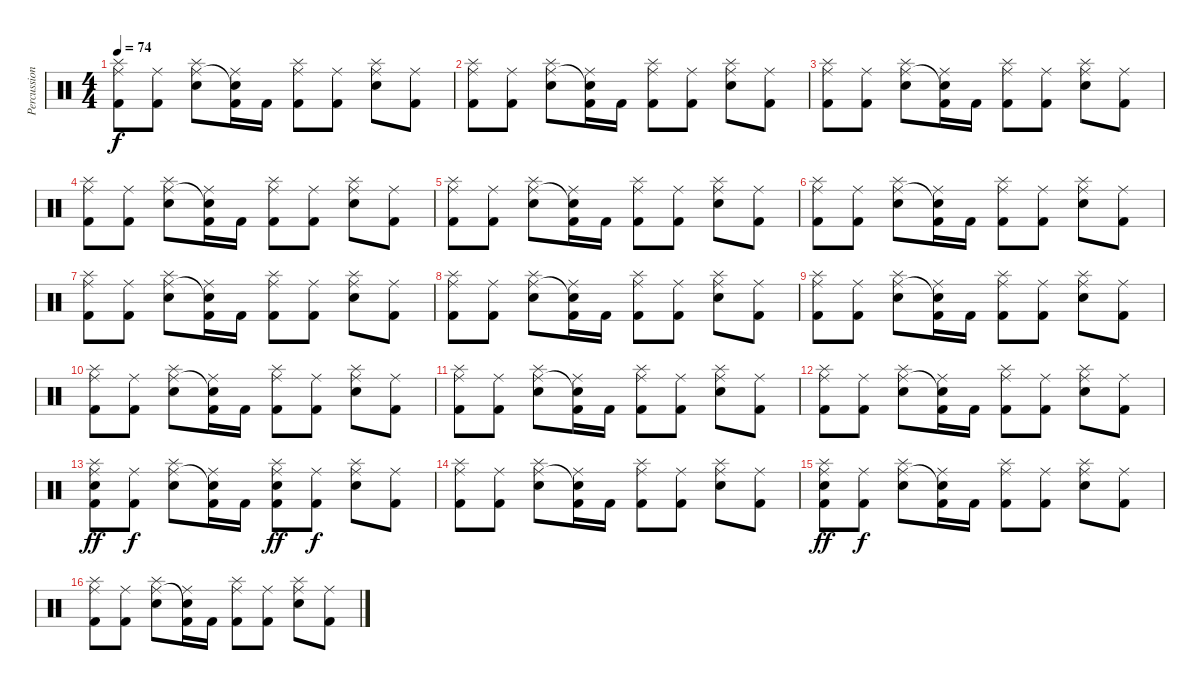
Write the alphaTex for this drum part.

\track ("Percussion" "Percussion") {instrument percussion}
\staff {score}
\articulation defaults
\ts (4 4)
\tempo 74
\clef neutral
\ks c
("Splash (hit)" "Ride (middle)" "Kick (hit) 2").8{dy f} ("Ride (middle)" "Kick (hit) 2").8 ("Splash (hit)" "Ride (middle)" "Electric Snare (hit)").8 ("Ride (middle)" "Snare (hit)"{t} "Kick (hit) 2").16 "Kick (hit) 2".16 ("Splash (hit)" "Ride (middle)" "Kick (hit) 2").8 ("Ride (middle)" "Kick (hit) 2").8 ("Splash (hit)" "Ride (middle)" "Electric Snare (hit)").8 ("Ride (middle)" "Kick (hit) 2").8 |
("Splash (hit)" "Ride (middle)" "Kick (hit) 2").8 ("Ride (middle)" "Kick (hit) 2").8 ("Splash (hit)" "Ride (middle)" "Electric Snare (hit)").8 ("Ride (middle)" "Snare (hit)"{t} "Kick (hit) 2").16 "Kick (hit) 2".16 ("Splash (hit)" "Ride (middle)" "Kick (hit) 2").8 ("Ride (middle)" "Kick (hit) 2").8 ("Splash (hit)" "Ride (middle)" "Electric Snare (hit)").8 ("Ride (middle)" "Kick (hit) 2").8 |
("Splash (hit)" "Ride (middle)" "Kick (hit) 2").8 ("Ride (middle)" "Kick (hit) 2").8 ("Splash (hit)" "Ride (middle)" "Electric Snare (hit)").8 ("Ride (middle)" "Snare (hit)"{t} "Kick (hit) 2").16 "Kick (hit) 2".16 ("Splash (hit)" "Ride (middle)" "Kick (hit) 2").8 ("Ride (middle)" "Kick (hit) 2").8 ("Splash (hit)" "Ride (middle)" "Electric Snare (hit)").8 ("Ride (middle)" "Kick (hit) 2").8 |
("Splash (hit)" "Ride (middle)" "Kick (hit) 2").8 ("Ride (middle)" "Kick (hit) 2").8 ("Splash (hit)" "Ride (middle)" "Electric Snare (hit)").8 ("Ride (middle)" "Snare (hit)"{t} "Kick (hit) 2").16 "Kick (hit) 2".16 ("Splash (hit)" "Ride (middle)" "Kick (hit) 2").8 ("Ride (middle)" "Kick (hit) 2").8 ("Splash (hit)" "Ride (middle)" "Electric Snare (hit)").8 ("Ride (middle)" "Kick (hit) 2").8 |
("Splash (hit)" "Ride (middle)" "Kick (hit) 2").8 ("Ride (middle)" "Kick (hit) 2").8 ("Splash (hit)" "Ride (middle)" "Electric Snare (hit)").8 ("Ride (middle)" "Snare (hit)"{t} "Kick (hit) 2").16 "Kick (hit) 2".16 ("Splash (hit)" "Ride (middle)" "Kick (hit) 2").8 ("Ride (middle)" "Kick (hit) 2").8 ("Splash (hit)" "Ride (middle)" "Electric Snare (hit)").8 ("Ride (middle)" "Kick (hit) 2").8 |
("Splash (hit)" "Ride (middle)" "Kick (hit) 2").8 ("Ride (middle)" "Kick (hit) 2").8 ("Splash (hit)" "Ride (middle)" "Electric Snare (hit)").8 ("Ride (middle)" "Snare (hit)"{t} "Kick (hit) 2").16 "Kick (hit) 2".16 ("Splash (hit)" "Ride (middle)" "Kick (hit) 2").8 ("Ride (middle)" "Kick (hit) 2").8 ("Splash (hit)" "Ride (middle)" "Electric Snare (hit)").8 ("Ride (middle)" "Kick (hit) 2").8 |
("Splash (hit)" "Ride (middle)" "Kick (hit) 2").8 ("Ride (middle)" "Kick (hit) 2").8 ("Splash (hit)" "Ride (middle)" "Electric Snare (hit)").8 ("Ride (middle)" "Snare (hit)"{t} "Kick (hit) 2").16 "Kick (hit) 2".16 ("Splash (hit)" "Ride (middle)" "Kick (hit) 2").8 ("Ride (middle)" "Kick (hit) 2").8 ("Splash (hit)" "Ride (middle)" "Electric Snare (hit)").8 ("Ride (middle)" "Kick (hit) 2").8 |
("Splash (hit)" "Ride (middle)" "Kick (hit) 2").8 ("Ride (middle)" "Kick (hit) 2").8 ("Splash (hit)" "Ride (middle)" "Electric Snare (hit)").8 ("Ride (middle)" "Snare (hit)"{t} "Kick (hit) 2").16 "Kick (hit) 2".16 ("Splash (hit)" "Ride (middle)" "Kick (hit) 2").8 ("Ride (middle)" "Kick (hit) 2").8 ("Splash (hit)" "Ride (middle)" "Electric Snare (hit)").8 ("Ride (middle)" "Kick (hit) 2").8 |
("Splash (hit)" "Ride (middle)" "Kick (hit) 2").8 ("Ride (middle)" "Kick (hit) 2").8 ("Splash (hit)" "Ride (middle)" "Electric Snare (hit)").8 ("Ride (middle)" "Snare (hit)"{t} "Kick (hit) 2").16 "Kick (hit) 2".16 ("Splash (hit)" "Ride (middle)" "Kick (hit) 2").8 ("Ride (middle)" "Kick (hit) 2").8 ("Splash (hit)" "Ride (middle)" "Electric Snare (hit)").8 ("Ride (middle)" "Kick (hit) 2").8 |
("Splash (hit)" "Ride (middle)" "Kick (hit) 2").8 ("Ride (middle)" "Kick (hit) 2").8 ("Splash (hit)" "Ride (middle)" "Electric Snare (hit)").8 ("Ride (middle)" "Snare (hit)"{t} "Kick (hit) 2").16 "Kick (hit) 2".16 ("Splash (hit)" "Ride (middle)" "Kick (hit) 2").8 ("Ride (middle)" "Kick (hit) 2").8 ("Splash (hit)" "Ride (middle)" "Electric Snare (hit)").8 ("Ride (middle)" "Kick (hit) 2").8 |
("Splash (hit)" "Ride (middle)" "Kick (hit) 2").8 ("Ride (middle)" "Kick (hit) 2").8 ("Splash (hit)" "Ride (middle)" "Electric Snare (hit)").8 ("Ride (middle)" "Snare (hit)"{t} "Kick (hit) 2").16 "Kick (hit) 2".16 ("Splash (hit)" "Ride (middle)" "Kick (hit) 2").8 ("Ride (middle)" "Kick (hit) 2").8 ("Splash (hit)" "Ride (middle)" "Electric Snare (hit)").8 ("Ride (middle)" "Kick (hit) 2").8 |
("Splash (hit)" "Ride (middle)" "Kick (hit) 2").8 ("Ride (middle)" "Kick (hit) 2").8 ("Splash (hit)" "Ride (middle)" "Electric Snare (hit)").8 ("Ride (middle)" "Snare (hit)"{t} "Kick (hit) 2").16 "Kick (hit) 2".16 ("Splash (hit)" "Ride (middle)" "Kick (hit) 2").8 ("Ride (middle)" "Kick (hit) 2").8 ("Splash (hit)" "Ride (middle)" "Electric Snare (hit)").8 ("Ride (middle)" "Kick (hit) 2").8 |
("Splash (hit)" "Ride (middle)" "Electric Snare (hit)" "Kick (hit) 2").8{dy ff} ("Ride (middle)" "Kick (hit) 2").8{dy f} ("Splash (hit)" "Ride (middle)" "Electric Snare (hit)").8 ("Ride (middle)" "Snare (hit)"{t} "Kick (hit) 2").16 "Kick (hit) 2".16 ("Splash (hit)" "Ride (middle)" "Electric Snare (hit)" "Kick (hit) 2").8{dy ff} ("Ride (middle)" "Kick (hit) 2").8{dy f} ("Splash (hit)" "Ride (middle)" "Electric Snare (hit)").8 ("Ride (middle)" "Kick (hit) 2").8 |
("Splash (hit)" "Ride (middle)" "Kick (hit) 2").8 ("Ride (middle)" "Kick (hit) 2").8 ("Splash (hit)" "Ride (middle)" "Electric Snare (hit)").8 ("Ride (middle)" "Snare (hit)"{t} "Kick (hit) 2").16 "Kick (hit) 2".16 ("Splash (hit)" "Ride (middle)" "Kick (hit) 2").8 ("Ride (middle)" "Kick (hit) 2").8 ("Splash (hit)" "Ride (middle)" "Electric Snare (hit)").8 ("Ride (middle)" "Kick (hit) 2").8 |
("Splash (hit)" "Ride (middle)" "Electric Snare (hit)" "Kick (hit) 2").8{dy ff} ("Ride (middle)" "Kick (hit) 2").8{dy f} ("Splash (hit)" "Ride (middle)" "Electric Snare (hit)").8 ("Ride (middle)" "Snare (hit)"{t} "Kick (hit) 2").16 "Kick (hit) 2".16 ("Splash (hit)" "Ride (middle)" "Kick (hit) 2").8 ("Ride (middle)" "Kick (hit) 2").8 ("Splash (hit)" "Ride (middle)" "Electric Snare (hit)").8 ("Ride (middle)" "Kick (hit) 2").8 |
("Splash (hit)" "Ride (middle)" "Kick (hit) 2").8 ("Ride (middle)" "Kick (hit) 2").8 ("Splash (hit)" "Ride (middle)" "Electric Snare (hit)").8 ("Ride (middle)" "Snare (hit)"{t} "Kick (hit) 2").16 "Kick (hit) 2".16 ("Splash (hit)" "Ride (middle)" "Kick (hit) 2").8 ("Ride (middle)" "Kick (hit) 2").8 ("Splash (hit)" "Ride (middle)" "Electric Snare (hit)").8 ("Ride (middle)" "Kick (hit) 2").8
